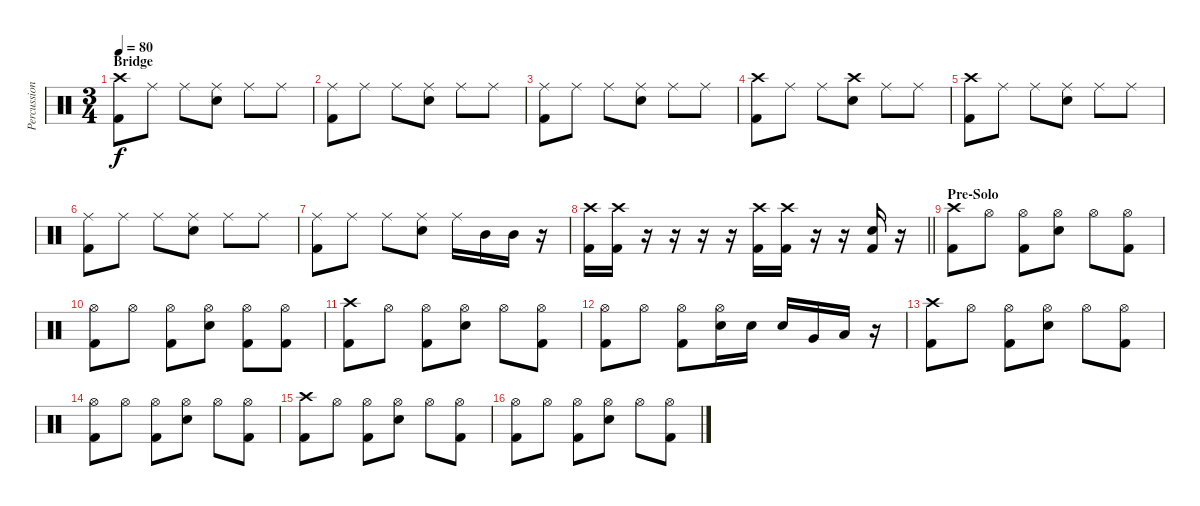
\track ("Percussion" "Percussion") {instrument percussion}
\staff {score}
\articulation defaults
\ts (3 4)
\section ("" "Bridge")
\tempo 80
\clef neutral
\ks c
("Crash high (hit)" "Kick (hit) 2").8{dy f} "Ride (middle)".8 "Ride (middle)".8 ("Ride (middle)" "Snare (hit) 2").8 "Ride (middle)".8 "Ride (middle)".8 |
("Ride (middle)" "Kick (hit) 2").8 "Ride (middle)".8 "Ride (middle)".8 ("Ride (middle)" "Snare (hit) 2").8 "Ride (middle)".8 "Ride (middle)".8 |
("Ride (middle)" "Kick (hit) 2").8 "Ride (middle)".8 "Ride (middle)".8 ("Ride (middle)" "Snare (hit) 2").8 "Ride (middle)".8 "Ride (middle)".8 |
("Crash high (hit)" "Kick (hit) 2").8 "Ride (middle)".8 "Ride (middle)".8 ("Crash high (hit)" "Snare (hit) 2").8 "Ride (middle)".8 "Ride (middle)".8 |
("Crash high (hit)" "Kick (hit) 2").8 "Ride (middle)".8 "Ride (middle)".8 ("Ride (middle)" "Snare (hit) 2").8 "Ride (middle)".8 "Ride (middle)".8 |
("Ride (middle)" "Kick (hit) 2").8 "Ride (middle)".8 "Ride (middle)".8 ("Ride (middle)" "Snare (hit) 2").8 "Ride (middle)".8 "Ride (middle)".8 |
("Ride (middle)" "Kick (hit) 2").8 "Ride (middle)".8 "Ride (middle)".8 ("Ride (middle)" "Snare (hit) 2").8 "Ride (middle)".16 "Mid Tom (hit)".16 "Mid Tom (hit)".16 r.16 |
\barLineRight lightlight
("Crash high (hit)" "Kick (hit) 2").16 ("Crash high (hit)" "Kick (hit) 2").16 r.16 r.16 r.16 r.16 ("Crash high (hit)" "Kick (hit) 2").16 ("Crash high (hit)" "Kick (hit) 2").16 r.16 r.16 ("Snare (hit) 2" "Kick (hit) 2").16 r.16 |
\section ("" "Pre-Solo")
("Crash high (hit)" "Kick (hit) 2").8 "Hi-Hat (open)".8 ("Hi-Hat (open)" "Kick (hit) 2").8 ("Hi-Hat (open)" "Snare (hit) 2").8 "Hi-Hat (open)".8 ("Hi-Hat (open)" "Kick (hit) 2").8 |
("Hi-Hat (open)" "Kick (hit) 2").8 "Hi-Hat (open)".8 ("Hi-Hat (open)" "Kick (hit) 2").8 ("Hi-Hat (open)" "Snare (hit) 2").8 ("Hi-Hat (open)" "Kick (hit) 2").8 ("Hi-Hat (open)" "Kick (hit) 2").8 |
("Crash high (hit)" "Kick (hit) 2").8 "Hi-Hat (open)".8 ("Hi-Hat (open)" "Kick (hit) 2").8 ("Hi-Hat (open)" "Snare (hit) 2").8 "Hi-Hat (open)".8 ("Hi-Hat (open)" "Kick (hit) 2").8 |
("Hi-Hat (open)" "Kick (hit) 2").8 "Hi-Hat (open)".8 ("Hi-Hat (open)" "Kick (hit) 2").8 ("Hi-Hat (open)" "Snare (hit) 2").16 "Snare (hit) 2".16 "Snare (hit) 2".16 "Very Low Tom (hit)".16 "Low Floor Tom (hit)".16 r.16 |
("Crash high (hit)" "Kick (hit) 2").8 "Hi-Hat (open)".8 ("Hi-Hat (open)" "Kick (hit) 2").8 ("Hi-Hat (open)" "Snare (hit) 2").8 "Hi-Hat (open)".8 ("Hi-Hat (open)" "Kick (hit) 2").8 |
("Hi-Hat (open)" "Kick (hit) 2").8 "Hi-Hat (open)".8 ("Hi-Hat (open)" "Kick (hit) 2").8 ("Hi-Hat (open)" "Snare (hit) 2").8 "Hi-Hat (open)".8 ("Hi-Hat (open)" "Kick (hit) 2").8 |
("Crash high (hit)" "Kick (hit) 2").8 "Hi-Hat (open)".8 ("Hi-Hat (open)" "Kick (hit) 2").8 ("Hi-Hat (open)" "Snare (hit) 2").8 "Hi-Hat (open)".8 ("Hi-Hat (open)" "Kick (hit) 2").8 |
("Hi-Hat (open)" "Kick (hit) 2").8 "Hi-Hat (open)".8 ("Hi-Hat (open)" "Kick (hit) 2").8 ("Hi-Hat (open)" "Snare (hit) 2").8 "Hi-Hat (open)".8 ("Hi-Hat (open)" "Kick (hit) 2").8
